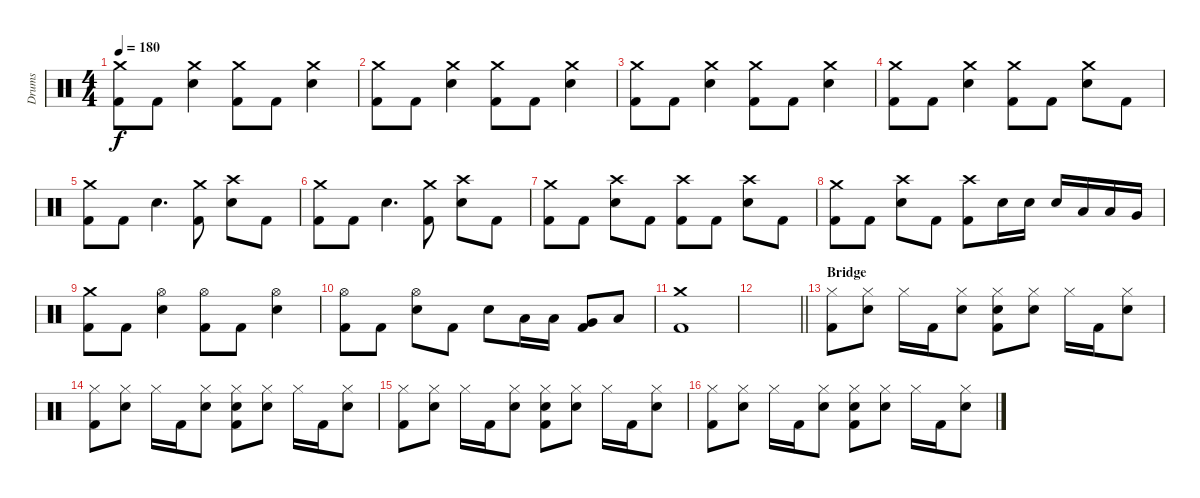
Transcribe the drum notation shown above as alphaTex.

\track ("Drums" "Drums") {instrument percussion}
\staff {score}
\articulation defaults
\ts (4 4)
\tempo 180
\clef neutral
\ks c
("Crash medium (hit)" "Kick (hit) 2").8{dy f} "Kick (hit) 2".8 ("Crash medium (hit)" "Electric Snare (hit)").4 ("Crash medium (hit)" "Kick (hit) 2").8 "Kick (hit) 2".8 ("Crash medium (hit)" "Electric Snare (hit)").4 |
("Crash medium (hit)" "Kick (hit) 2").8 "Kick (hit) 2".8 ("Crash medium (hit)" "Electric Snare (hit)").4 ("Crash medium (hit)" "Kick (hit) 2").8 "Kick (hit) 2".8 ("Crash medium (hit)" "Electric Snare (hit)").4 |
("Crash medium (hit)" "Kick (hit) 2").8 "Kick (hit) 2".8 ("Crash medium (hit)" "Electric Snare (hit)").4 ("Crash medium (hit)" "Kick (hit) 2").8 "Kick (hit) 2".8 ("Crash medium (hit)" "Electric Snare (hit)").4 |
("Crash medium (hit)" "Kick (hit) 2").8 "Kick (hit) 2".8 ("Crash medium (hit)" "Electric Snare (hit)").4 ("Crash medium (hit)" "Kick (hit) 2").8 "Kick (hit) 2".8 ("Crash medium (hit)" "Electric Snare (hit)").8 "Kick (hit) 2".8 |
("Crash medium (hit)" "Kick (hit) 2").8 "Kick (hit) 2".8 "Electric Snare (hit)".4{d} ("Crash medium (hit)" "Kick (hit) 2").8 ("Crash high (hit)" "Electric Snare (hit)").8 "Kick (hit) 2".8 |
("Crash medium (hit)" "Kick (hit) 2").8 "Kick (hit) 2".8 "Electric Snare (hit)".4{d} ("Crash medium (hit)" "Kick (hit) 2").8 ("Crash high (hit)" "Electric Snare (hit)").8 "Kick (hit) 2".8 |
("Crash medium (hit)" "Kick (hit) 2").8 "Kick (hit) 2".8 ("Crash high (hit)" "Electric Snare (hit)").8 "Kick (hit) 2".8 ("Crash high (hit)" "Kick (hit) 2").8 "Kick (hit) 2".8 ("Crash high (hit)" "Electric Snare (hit)").8 "Kick (hit) 2".8 |
("Crash medium (hit)" "Kick (hit) 2").8 "Kick (hit) 2".8 ("Crash high (hit)" "Electric Snare (hit)").8 "Kick (hit) 2".8 ("Crash high (hit)" "Kick (hit) 2").8 "Electric Snare (hit)".16 "Electric Snare (hit)".16 "Electric Snare (hit)".16 "Low Tom (hit)".16 "Low Tom (hit)".16 "Very Low Tom (hit)".16 |
("Crash medium (hit)" "Kick (hit) 2").8 "Kick (hit) 2".8 ("Hi-Hat (open)" "Electric Snare (hit)").4 ("Hi-Hat (open)" "Kick (hit) 2").8 "Kick (hit) 2".8 ("Hi-Hat (open)" "Electric Snare (hit)").4 |
("Hi-Hat (open)" "Kick (hit) 2").8 "Kick (hit) 2".8 ("Hi-Hat (open)" "Electric Snare (hit)").8 "Kick (hit) 2".8 "Electric Snare (hit)".8 "Low Tom (hit)".16 "Low Tom (hit)".16 ("Very Low Tom (hit)" "Kick (hit) 2").8 "Low Floor Tom (hit)".8 |
("Crash medium (hit)" "Kick (hit) 2").1 |
\barLineRight lightlight
|
\section ("" "Bridge")
("Hi-Hat (closed)" "Kick (hit) 2").8{volume 12 balance 8} ("Hi-Hat (closed)" "Electric Snare (hit)").8{volume 8 balance 16} "Hi-Hat (closed)".16 "Kick (hit) 2".16 ("Hi-Hat (closed)" "Electric Snare (hit)").8 ("Hi-Hat (closed)" "Electric Snare (hit)" "Kick (hit) 2").8{volume 12 balance 8} ("Hi-Hat (closed)" "Electric Snare (hit)").8{volume 8 balance 16} "Hi-Hat (closed)".16 "Kick (hit) 2".16 ("Hi-Hat (closed)" "Electric Snare (hit)").8 |
("Hi-Hat (closed)" "Kick (hit) 2").8{volume 12 balance 8} ("Hi-Hat (closed)" "Electric Snare (hit)").8{volume 8 balance 16} "Hi-Hat (closed)".16 "Kick (hit) 2".16 ("Hi-Hat (closed)" "Electric Snare (hit)").8 ("Hi-Hat (closed)" "Electric Snare (hit)" "Kick (hit) 2").8{volume 12 balance 8} ("Hi-Hat (closed)" "Electric Snare (hit)").8{volume 8 balance 16} "Hi-Hat (closed)".16 "Kick (hit) 2".16 ("Hi-Hat (closed)" "Electric Snare (hit)").8 |
("Hi-Hat (closed)" "Kick (hit) 2").8{volume 12 balance 8} ("Hi-Hat (closed)" "Electric Snare (hit)").8{volume 8 balance 16} "Hi-Hat (closed)".16 "Kick (hit) 2".16 ("Hi-Hat (closed)" "Electric Snare (hit)").8 ("Hi-Hat (closed)" "Electric Snare (hit)" "Kick (hit) 2").8{volume 12 balance 8} ("Hi-Hat (closed)" "Electric Snare (hit)").8{volume 8 balance 16} "Hi-Hat (closed)".16 "Kick (hit) 2".16 ("Hi-Hat (closed)" "Electric Snare (hit)").8 |
("Hi-Hat (closed)" "Kick (hit) 2").8{volume 12 balance 8} ("Hi-Hat (closed)" "Electric Snare (hit)").8{volume 8 balance 16} "Hi-Hat (closed)".16 "Kick (hit) 2".16 ("Hi-Hat (closed)" "Electric Snare (hit)").8 ("Hi-Hat (closed)" "Electric Snare (hit)" "Kick (hit) 2").8{volume 12 balance 8} ("Hi-Hat (closed)" "Electric Snare (hit)").8{volume 8 balance 16} "Hi-Hat (closed)".16 "Kick (hit) 2".16 ("Hi-Hat (closed)" "Electric Snare (hit)").8
